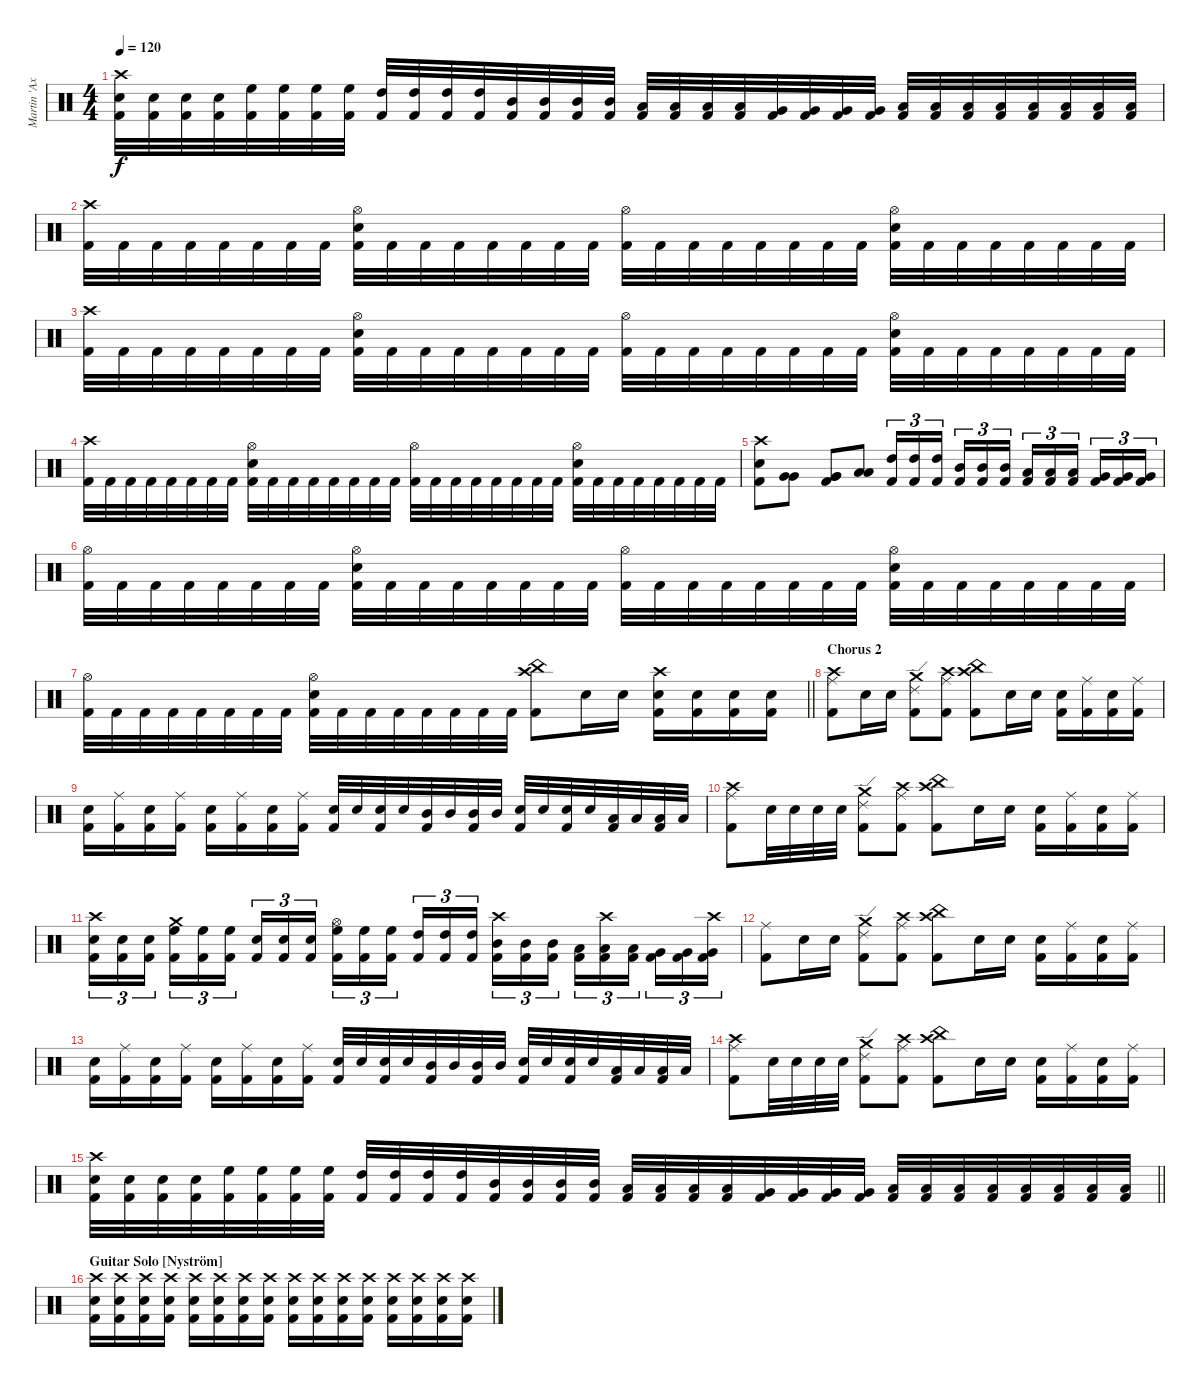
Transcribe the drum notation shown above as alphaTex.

\track ("Martin 'Axe' Axenrot" "Martin 'Ax") {instrument percussion}
\staff {score}
\articulation defaults
\ts (4 4)
\tempo 120
\clef neutral
\ks c
("Crash high (hit)" "Snare (hit) 2" "Kick (hit) 2").32{dy f} ("Snare (hit) 2" "Kick (hit) 2").32 ("Snare (hit) 2" "Kick (hit) 2").32 ("Snare (hit) 2" "Kick (hit) 2").32 ("High Floor Tom (hit)" "Kick (hit) 2").32 ("High Floor Tom (hit)" "Kick (hit) 2").32 ("High Floor Tom (hit)" "Kick (hit) 2").32 ("High Floor Tom (hit)" "Kick (hit) 2").32 ("High Tom (hit)" "Kick (hit) 2").32 ("High Tom (hit)" "Kick (hit) 2").32 ("High Tom (hit)" "Kick (hit) 2").32 ("High Tom (hit)" "Kick (hit) 2").32 ("Mid Tom (hit)" "Kick (hit) 2").32 ("Mid Tom (hit)" "Kick (hit) 2").32 ("Mid Tom (hit)" "Kick (hit) 2").32 ("Mid Tom (hit)" "Kick (hit) 2").32 ("Low Tom (hit)" "Kick (hit) 2").32 ("Low Tom (hit)" "Kick (hit) 2").32 ("Low Tom (hit)" "Kick (hit) 2").32 ("Low Tom (hit)" "Kick (hit) 2").32 ("Very Low Tom (hit)" "Kick (hit) 2").32 ("Very Low Tom (hit)" "Kick (hit) 2").32 ("Very Low Tom (hit)" "Kick (hit) 2").32 ("Very Low Tom (hit)" "Kick (hit) 2").32 ("Low Floor Tom (hit)" "Kick (hit) 2").32 ("Low Floor Tom (hit)" "Kick (hit) 2").32 ("Low Floor Tom (hit)" "Kick (hit) 2").32 ("Low Floor Tom (hit)" "Kick (hit) 2").32 ("Low Floor Tom (hit)" "Kick (hit) 2").32 ("Low Floor Tom (hit)" "Kick (hit) 2").32 ("Low Floor Tom (hit)" "Kick (hit) 2").32 ("Low Floor Tom (hit)" "Kick (hit) 2").32 |
("Crash high (hit)" "Kick (hit) 2").32 "Kick (hit) 2".32 "Kick (hit) 2".32 "Kick (hit) 2".32 "Kick (hit) 2".32 "Kick (hit) 2".32 "Kick (hit) 2".32 "Kick (hit) 2".32 ("Snare (hit) 2" "Hi-Hat (open)" "Kick (hit) 2").32 "Kick (hit) 2".32 "Kick (hit) 2".32 "Kick (hit) 2".32 "Kick (hit) 2".32 "Kick (hit) 2".32 "Kick (hit) 2".32 "Kick (hit) 2".32 ("Hi-Hat (open)" "Kick (hit) 2").32 "Kick (hit) 2".32 "Kick (hit) 2".32 "Kick (hit) 2".32 "Kick (hit) 2".32 "Kick (hit) 2".32 "Kick (hit) 2".32 "Kick (hit) 2".32 ("Snare (hit) 2" "Hi-Hat (open)" "Kick (hit) 2").32 "Kick (hit) 2".32 "Kick (hit) 2".32 "Kick (hit) 2".32 "Kick (hit) 2".32 "Kick (hit) 2".32 "Kick (hit) 2".32 "Kick (hit) 2".32 |
("Crash high (hit)" "Kick (hit) 2").32 "Kick (hit) 2".32 "Kick (hit) 2".32 "Kick (hit) 2".32 "Kick (hit) 2".32 "Kick (hit) 2".32 "Kick (hit) 2".32 "Kick (hit) 2".32 ("Snare (hit) 2" "Hi-Hat (open)" "Kick (hit) 2").32 "Kick (hit) 2".32 "Kick (hit) 2".32 "Kick (hit) 2".32 "Kick (hit) 2".32 "Kick (hit) 2".32 "Kick (hit) 2".32 "Kick (hit) 2".32 ("Hi-Hat (open)" "Kick (hit) 2").32 "Kick (hit) 2".32 "Kick (hit) 2".32 "Kick (hit) 2".32 "Kick (hit) 2".32 "Kick (hit) 2".32 "Kick (hit) 2".32 "Kick (hit) 2".32 ("Snare (hit) 2" "Hi-Hat (open)" "Kick (hit) 2").32 "Kick (hit) 2".32 "Kick (hit) 2".32 "Kick (hit) 2".32 "Kick (hit) 2".32 "Kick (hit) 2".32 "Kick (hit) 2".32 "Kick (hit) 2".32 |
("Crash high (hit)" "Kick (hit) 2").32 "Kick (hit) 2".32 "Kick (hit) 2".32 "Kick (hit) 2".32 "Kick (hit) 2".32 "Kick (hit) 2".32 "Kick (hit) 2".32 "Kick (hit) 2".32 ("Snare (hit) 2" "Hi-Hat (open)" "Kick (hit) 2").32 "Kick (hit) 2".32 "Kick (hit) 2".32 "Kick (hit) 2".32 "Kick (hit) 2".32 "Kick (hit) 2".32 "Kick (hit) 2".32 "Kick (hit) 2".32 ("Hi-Hat (open)" "Kick (hit) 2").32 "Kick (hit) 2".32 "Kick (hit) 2".32 "Kick (hit) 2".32 "Kick (hit) 2".32 "Kick (hit) 2".32 "Kick (hit) 2".32 "Kick (hit) 2".32 ("Snare (hit) 2" "Hi-Hat (open)" "Kick (hit) 2").32 "Kick (hit) 2".32 "Kick (hit) 2".32 "Kick (hit) 2".32 "Kick (hit) 2".32 "Kick (hit) 2".32 "Kick (hit) 2".32 "Kick (hit) 2".32 |
("Crash high (hit)" "Snare (hit) 2" "Kick (hit) 2").8 ("Very Low Tom (hit)" "Very Low Tom (hit)").8 ("Very Low Tom (hit)" "Very Low Tom (hit)" "Kick (hit) 2").8 ("Low Floor Tom (hit)" "Low Floor Tom (hit)").8 ("High Tom (hit)" "Kick (hit) 2").16{tu (3 2)} ("High Tom (hit)" "Kick (hit) 2").16{tu (3 2)} ("High Tom (hit)" "Kick (hit) 2").16{tu (3 2) beam splitsecondary} ("Mid Tom (hit)" "Kick (hit) 2").16{tu (3 2)} ("Mid Tom (hit)" "Kick (hit) 2").16{tu (3 2)} ("Mid Tom (hit)" "Kick (hit) 2").16{tu (3 2)} ("Low Tom (hit)" "Kick (hit) 2").16{tu (3 2)} ("Low Tom (hit)" "Kick (hit) 2").16{tu (3 2)} ("Low Tom (hit)" "Kick (hit) 2").16{tu (3 2) beam splitsecondary} ("Very Low Tom (hit)" "Kick (hit) 2").16{tu (3 2)} ("Very Low Tom (hit)" "Kick (hit) 2").16{tu (3 2)} ("Very Low Tom (hit)" "Kick (hit) 2").16{tu (3 2)} |
("Hi-Hat (open)" "Kick (hit) 2").32 "Kick (hit) 2".32 "Kick (hit) 2".32 "Kick (hit) 2".32 "Kick (hit) 2".32 "Kick (hit) 2".32 "Kick (hit) 2".32 "Kick (hit) 2".32 ("Snare (hit) 2" "Hi-Hat (open)" "Kick (hit) 2").32 "Kick (hit) 2".32 "Kick (hit) 2".32 "Kick (hit) 2".32 "Kick (hit) 2".32 "Kick (hit) 2".32 "Kick (hit) 2".32 "Kick (hit) 2".32 ("Hi-Hat (open)" "Kick (hit) 2").32 "Kick (hit) 2".32 "Kick (hit) 2".32 "Kick (hit) 2".32 "Kick (hit) 2".32 "Kick (hit) 2".32 "Kick (hit) 2".32 "Kick (hit) 2".32 ("Snare (hit) 2" "Hi-Hat (open)" "Kick (hit) 2").32 "Kick (hit) 2".32 "Kick (hit) 2".32 "Kick (hit) 2".32 "Kick (hit) 2".32 "Kick (hit) 2".32 "Kick (hit) 2".32 "Kick (hit) 2".32 |
\barLineRight lightlight
("Hi-Hat (open)" "Kick (hit) 2").32 "Kick (hit) 2".32 "Kick (hit) 2".32 "Kick (hit) 2".32 "Kick (hit) 2".32 "Kick (hit) 2".32 "Kick (hit) 2".32 "Kick (hit) 2".32 ("Snare (hit) 2" "Hi-Hat (open)" "Kick (hit) 2").32 "Kick (hit) 2".32 "Kick (hit) 2".32 "Kick (hit) 2".32 "Kick (hit) 2".32 "Kick (hit) 2".32 "Kick (hit) 2".32 "Kick (hit) 2".32 ("Crash high (hit)" "China (hit)" "Kick (hit) 2").8 "Snare (hit) 2".16 "Snare (hit) 2".16 ("Crash high (hit)" "Snare (hit) 2" "Kick (hit) 2").16 ("Snare (hit) 2" "Kick (hit) 2").16 ("Snare (hit) 2" "Kick (hit) 2").16 ("Snare (hit) 2" "Kick (hit) 2").16 |
\section ("" "Chorus 2")
("Crash high (hit)" "Ride (middle)" "Kick (hit) 2").8 "Snare (hit) 2".16 "Snare (hit) 2".16 ("Crash medium (hit)" "Ride (edge) 2" "Kick (hit) 2").8 ("Crash high (hit)" "Ride (middle)" "Kick (hit) 2").8 ("Crash high (hit)" "China (hit)" "Kick (hit) 2").8 "Snare (hit) 2".16 "Snare (hit) 2".16 ("Snare (hit) 2" "Kick (hit) 2").16 ("Ride (middle)" "Kick (hit) 2").16 ("Snare (hit) 2" "Kick (hit) 2").16 ("Ride (middle)" "Kick (hit) 2").16 |
("Snare (hit) 2" "Kick (hit) 2").16 ("Ride (middle)" "Kick (hit) 2").16 ("Snare (hit) 2" "Kick (hit) 2").16 ("Ride (middle)" "Kick (hit) 2").16 ("Snare (hit) 2" "Kick (hit) 2").16 ("Ride (middle)" "Kick (hit) 2").16 ("Snare (hit) 2" "Kick (hit) 2").16 ("Ride (middle)" "Kick (hit) 2").16 ("Snare (hit) 2" "Kick (hit) 2").32 "Snare (hit) 2".32 ("Snare (hit) 2" "Kick (hit) 2").32 "Snare (hit) 2".32 ("Mid Tom (hit)" "Kick (hit) 2").32 "Mid Tom (hit)".32 ("Mid Tom (hit)" "Kick (hit) 2").32 "Mid Tom (hit)".32 ("Snare (hit) 2" "Kick (hit) 2").32 "Snare (hit) 2".32 ("Snare (hit) 2" "Kick (hit) 2").32 "Snare (hit) 2".32 ("Low Tom (hit)" "Kick (hit) 2").32 "Low Tom (hit)".32 ("Low Tom (hit)" "Kick (hit) 2").32 "Low Tom (hit)".32 |
("Crash high (hit)" "Ride (middle)" "Kick (hit) 2").8 "Snare (hit) 2".32 "Snare (hit) 2".32 "Snare (hit) 2".32 "Snare (hit) 2".32 ("Crash medium (hit)" "Ride (edge) 2" "Kick (hit) 2").8 ("Crash high (hit)" "Ride (middle)" "Kick (hit) 2").8 ("Crash high (hit)" "China (hit)" "Kick (hit) 2").8 "Snare (hit) 2".16 "Snare (hit) 2".16 ("Snare (hit) 2" "Kick (hit) 2").16 ("Ride (middle)" "Kick (hit) 2").16 ("Snare (hit) 2" "Kick (hit) 2").16 ("Ride (middle)" "Kick (hit) 2").16 |
("Crash high (hit)" "Snare (hit) 2" "Kick (hit) 2").16{tu (3 2)} ("Snare (hit) 2" "Kick (hit) 2").16{tu (3 2)} ("Snare (hit) 2" "Kick (hit) 2").16{tu (3 2) beam splitsecondary} ("Crash medium (hit)" "High Floor Tom (hit)" "Kick (hit) 2").16{tu (3 2)} ("High Floor Tom (hit)" "Kick (hit) 2").16{tu (3 2)} ("High Floor Tom (hit)" "Kick (hit) 2").16{tu (3 2)} ("Snare (hit) 2" "Kick (hit) 2").16{tu (3 2)} ("Snare (hit) 2" "Kick (hit) 2").16{tu (3 2)} ("Snare (hit) 2" "Kick (hit) 2").16{tu (3 2) beam splitsecondary} ("Hi-Hat (open)" "High Floor Tom (hit)" "Kick (hit) 2").16{tu (3 2)} ("High Floor Tom (hit)" "Kick (hit) 2").16{tu (3 2)} ("High Floor Tom (hit)" "Kick (hit) 2").16{tu (3 2)} ("High Tom (hit)" "Kick (hit) 2").16{tu (3 2)} ("High Tom (hit)" "Kick (hit) 2").16{tu (3 2)} ("High Tom (hit)" "Kick (hit) 2").16{tu (3 2) beam splitsecondary} ("Crash high (hit)" "Mid Tom (hit)" "Kick (hit) 2").16{tu (3 2)} ("Mid Tom (hit)" "Kick (hit) 2").16{tu (3 2)} ("Mid Tom (hit)" "Kick (hit) 2").16{tu (3 2)} ("Low Tom (hit)" "Kick (hit) 2").16{tu (3 2)} ("Crash high (hit)" "Low Tom (hit)" "Kick (hit) 2").16{tu (3 2)} ("Low Tom (hit)" "Kick (hit) 2").16{tu (3 2) beam splitsecondary} ("Very Low Tom (hit)" "Kick (hit) 2").16{tu (3 2)} ("Very Low Tom (hit)" "Kick (hit) 2").16{tu (3 2)} ("Crash high (hit)" "Very Low Tom (hit)" "Kick (hit) 2").16{tu (3 2)} |
("Ride (middle)" "Kick (hit) 2").8 "Snare (hit) 2".16 "Snare (hit) 2".16 ("Crash medium (hit)" "Ride (edge) 2" "Kick (hit) 2").8 ("Crash high (hit)" "Ride (middle)" "Kick (hit) 2").8 ("Crash high (hit)" "China (hit)" "Kick (hit) 2").8 "Snare (hit) 2".16 "Snare (hit) 2".16 ("Snare (hit) 2" "Kick (hit) 2").16 ("Ride (middle)" "Kick (hit) 2").16 ("Snare (hit) 2" "Kick (hit) 2").16 ("Ride (middle)" "Kick (hit) 2").16 |
("Snare (hit) 2" "Kick (hit) 2").16 ("Ride (middle)" "Kick (hit) 2").16 ("Snare (hit) 2" "Kick (hit) 2").16 ("Ride (middle)" "Kick (hit) 2").16 ("Snare (hit) 2" "Kick (hit) 2").16 ("Ride (middle)" "Kick (hit) 2").16 ("Snare (hit) 2" "Kick (hit) 2").16 ("Ride (middle)" "Kick (hit) 2").16 ("Snare (hit) 2" "Kick (hit) 2").32 "Snare (hit) 2".32 ("Snare (hit) 2" "Kick (hit) 2").32 "Snare (hit) 2".32 ("Mid Tom (hit)" "Kick (hit) 2").32 "Mid Tom (hit)".32 ("Mid Tom (hit)" "Kick (hit) 2").32 "Mid Tom (hit)".32 ("Snare (hit) 2" "Kick (hit) 2").32 "Snare (hit) 2".32 ("Snare (hit) 2" "Kick (hit) 2").32 "Snare (hit) 2".32 ("Low Tom (hit)" "Kick (hit) 2").32 "Low Tom (hit)".32 ("Low Tom (hit)" "Kick (hit) 2").32 "Low Tom (hit)".32 |
("Crash high (hit)" "Ride (middle)" "Kick (hit) 2").8 "Snare (hit) 2".32 "Snare (hit) 2".32 "Snare (hit) 2".32 "Snare (hit) 2".32 ("Crash medium (hit)" "Ride (edge) 2" "Kick (hit) 2").8 ("Crash high (hit)" "Ride (middle)" "Kick (hit) 2").8 ("Crash high (hit)" "China (hit)" "Kick (hit) 2").8 "Snare (hit) 2".16 "Snare (hit) 2".16 ("Snare (hit) 2" "Kick (hit) 2").16 ("Ride (middle)" "Kick (hit) 2").16 ("Snare (hit) 2" "Kick (hit) 2").16 ("Ride (middle)" "Kick (hit) 2").16 |
\barLineRight lightlight
("Crash high (hit)" "Snare (hit) 2" "Kick (hit) 2").32 ("Snare (hit) 2" "Kick (hit) 2").32 ("Snare (hit) 2" "Kick (hit) 2").32 ("Snare (hit) 2" "Kick (hit) 2").32 ("High Floor Tom (hit)" "Kick (hit) 2").32 ("High Floor Tom (hit)" "Kick (hit) 2").32 ("High Floor Tom (hit)" "Kick (hit) 2").32 ("High Floor Tom (hit)" "Kick (hit) 2").32 ("High Tom (hit)" "Kick (hit) 2").32 ("High Tom (hit)" "Kick (hit) 2").32 ("High Tom (hit)" "Kick (hit) 2").32 ("High Tom (hit)" "Kick (hit) 2").32 ("Mid Tom (hit)" "Kick (hit) 2").32 ("Mid Tom (hit)" "Kick (hit) 2").32 ("Mid Tom (hit)" "Kick (hit) 2").32 ("Mid Tom (hit)" "Kick (hit) 2").32 ("Low Tom (hit)" "Kick (hit) 2").32 ("Low Tom (hit)" "Kick (hit) 2").32 ("Low Tom (hit)" "Kick (hit) 2").32 ("Low Tom (hit)" "Kick (hit) 2").32 ("Very Low Tom (hit)" "Kick (hit) 2").32 ("Very Low Tom (hit)" "Kick (hit) 2").32 ("Very Low Tom (hit)" "Kick (hit) 2").32 ("Very Low Tom (hit)" "Kick (hit) 2").32 ("Low Floor Tom (hit)" "Kick (hit) 2").32 ("Low Floor Tom (hit)" "Kick (hit) 2").32 ("Low Floor Tom (hit)" "Kick (hit) 2").32 ("Low Floor Tom (hit)" "Kick (hit) 2").32 ("Low Floor Tom (hit)" "Kick (hit) 2").32 ("Low Floor Tom (hit)" "Kick (hit) 2").32 ("Low Floor Tom (hit)" "Kick (hit) 2").32 ("Low Floor Tom (hit)" "Kick (hit) 2").32 |
\section ("" "Guitar Solo [Nyström]")
("Crash high (hit)" "Snare (hit) 2" "Kick (hit) 2").16 ("Crash high (hit)" "Snare (hit) 2" "Kick (hit) 2").16 ("Crash high (hit)" "Snare (hit) 2" "Kick (hit) 2").16 ("Crash high (hit)" "Snare (hit) 2" "Kick (hit) 2").16 ("Crash high (hit)" "Snare (hit) 2" "Kick (hit) 2").16 ("Crash high (hit)" "Snare (hit) 2" "Kick (hit) 2").16 ("Crash high (hit)" "Snare (hit) 2" "Kick (hit) 2").16 ("Crash high (hit)" "Snare (hit) 2" "Kick (hit) 2").16 ("Crash high (hit)" "Snare (hit) 2" "Kick (hit) 2").16 ("Crash high (hit)" "Snare (hit) 2" "Kick (hit) 2").16 ("Crash high (hit)" "Snare (hit) 2" "Kick (hit) 2").16 ("Crash high (hit)" "Snare (hit) 2" "Kick (hit) 2").16 ("Crash high (hit)" "Snare (hit) 2" "Kick (hit) 2").16 ("Crash high (hit)" "Snare (hit) 2" "Kick (hit) 2").16 ("Crash high (hit)" "Snare (hit) 2" "Kick (hit) 2").16 ("Crash high (hit)" "Snare (hit) 2" "Kick (hit) 2").16
